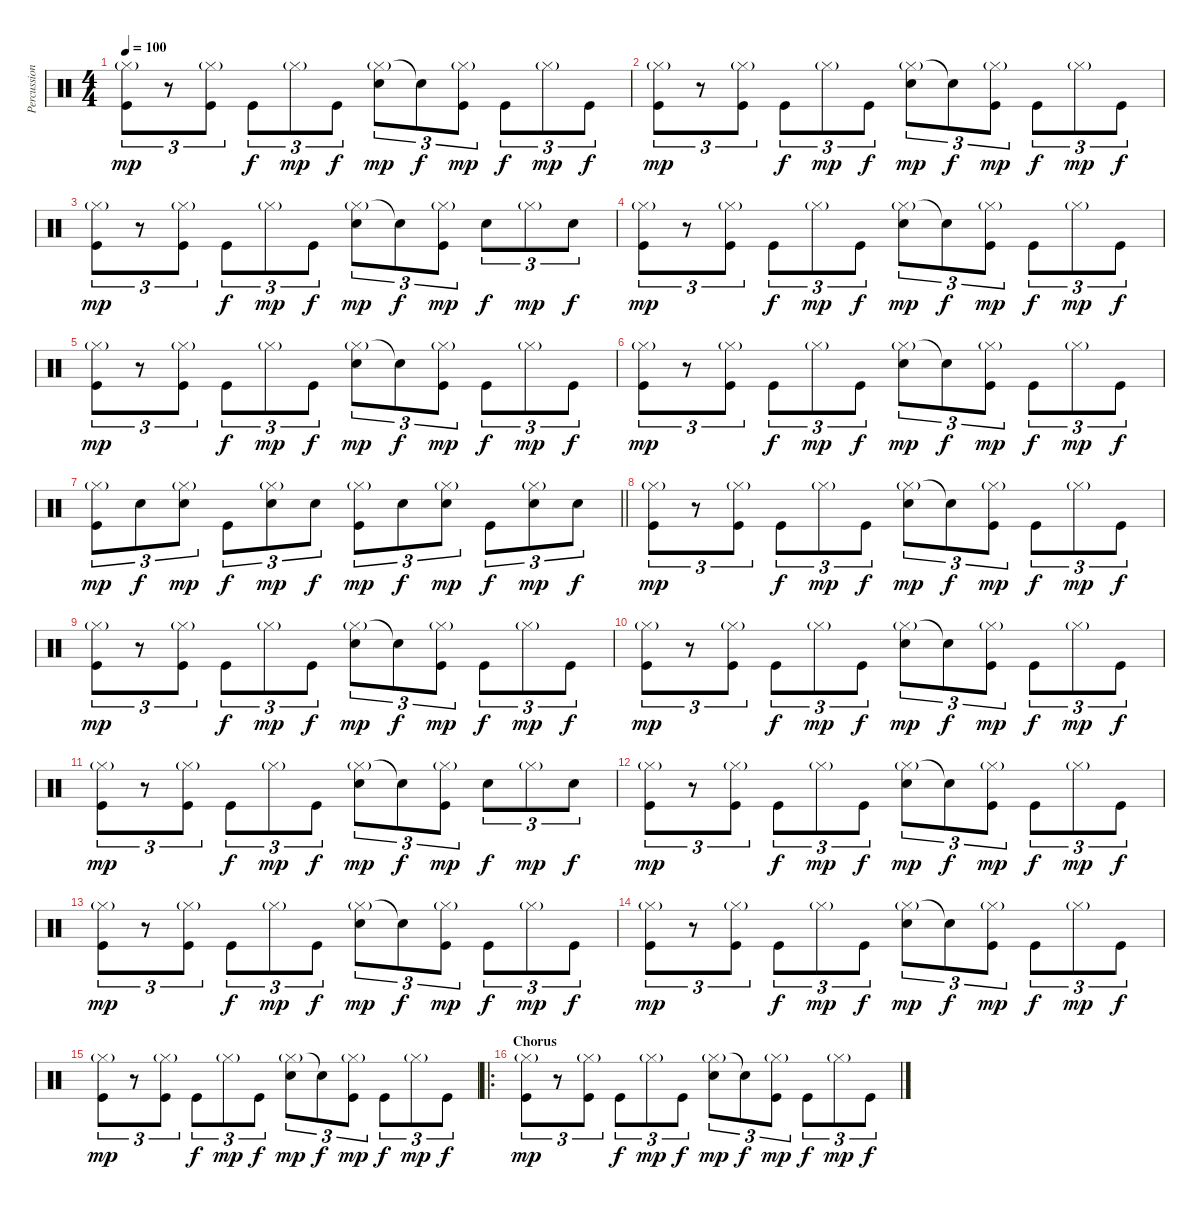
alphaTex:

\track ("Percussions" "Percussion") {instrument percussion}
\staff {score}
\articulation defaults
\ts (4 4)
\tempo 100
\clef neutral
\ks c
("Hi-Hat (closed)"{g} "Kick (hit)").8{tu (3 2) dy mp} r.8{tu (3 2)} ("Hi-Hat (closed)"{g} "Kick (hit)").8{tu (3 2)} "Kick (hit)".8{tu (3 2) dy f} "Hi-Hat (closed)"{g}.8{tu (3 2) dy mp} "Kick (hit)".8{tu (3 2) dy f} ("Hi-Hat (closed)"{g} "Electric Snare (hit)").8{tu (3 2) dy mp} "Snare (hit)"{t}.8{tu (3 2) dy f} ("Hi-Hat (closed)"{g} "Kick (hit)").8{tu (3 2) dy mp} "Kick (hit)".8{tu (3 2) dy f} "Hi-Hat (closed)"{g}.8{tu (3 2) dy mp} "Kick (hit)".8{tu (3 2) dy f} |
("Hi-Hat (closed)"{g} "Kick (hit)").8{tu (3 2) dy mp} r.8{tu (3 2)} ("Hi-Hat (closed)"{g} "Kick (hit)").8{tu (3 2)} "Kick (hit)".8{tu (3 2) dy f} "Hi-Hat (closed)"{g}.8{tu (3 2) dy mp} "Kick (hit)".8{tu (3 2) dy f} ("Hi-Hat (closed)"{g} "Electric Snare (hit)").8{tu (3 2) dy mp} "Snare (hit)"{t}.8{tu (3 2) dy f} ("Hi-Hat (closed)"{g} "Kick (hit)").8{tu (3 2) dy mp} "Kick (hit)".8{tu (3 2) dy f} "Hi-Hat (closed)"{g}.8{tu (3 2) dy mp} "Kick (hit)".8{tu (3 2) dy f} |
("Hi-Hat (closed)"{g} "Kick (hit)").8{tu (3 2) dy mp} r.8{tu (3 2)} ("Hi-Hat (closed)"{g} "Kick (hit)").8{tu (3 2)} "Kick (hit)".8{tu (3 2) dy f} "Hi-Hat (closed)"{g}.8{tu (3 2) dy mp} "Kick (hit)".8{tu (3 2) dy f} ("Hi-Hat (closed)"{g} "Electric Snare (hit)").8{tu (3 2) dy mp} "Snare (hit)"{t}.8{tu (3 2) dy f} ("Hi-Hat (closed)"{g} "Kick (hit)").8{tu (3 2) dy mp} "Electric Snare (hit)".8{tu (3 2) dy f} "Hi-Hat (closed)"{g}.8{tu (3 2) dy mp} "Electric Snare (hit)".8{tu (3 2) dy f} |
("Hi-Hat (closed)"{g} "Kick (hit)").8{tu (3 2) dy mp} r.8{tu (3 2)} ("Hi-Hat (closed)"{g} "Kick (hit)").8{tu (3 2)} "Kick (hit)".8{tu (3 2) dy f} "Hi-Hat (closed)"{g}.8{tu (3 2) dy mp} "Kick (hit)".8{tu (3 2) dy f} ("Hi-Hat (closed)"{g} "Electric Snare (hit)").8{tu (3 2) dy mp} "Snare (hit)"{t}.8{tu (3 2) dy f} ("Hi-Hat (closed)"{g} "Kick (hit)").8{tu (3 2) dy mp} "Kick (hit)".8{tu (3 2) dy f} "Hi-Hat (closed)"{g}.8{tu (3 2) dy mp} "Kick (hit)".8{tu (3 2) dy f} |
("Hi-Hat (closed)"{g} "Kick (hit)").8{tu (3 2) dy mp} r.8{tu (3 2)} ("Hi-Hat (closed)"{g} "Kick (hit)").8{tu (3 2)} "Kick (hit)".8{tu (3 2) dy f} "Hi-Hat (closed)"{g}.8{tu (3 2) dy mp} "Kick (hit)".8{tu (3 2) dy f} ("Hi-Hat (closed)"{g} "Electric Snare (hit)").8{tu (3 2) dy mp} "Snare (hit)"{t}.8{tu (3 2) dy f} ("Hi-Hat (closed)"{g} "Kick (hit)").8{tu (3 2) dy mp} "Kick (hit)".8{tu (3 2) dy f} "Hi-Hat (closed)"{g}.8{tu (3 2) dy mp} "Kick (hit)".8{tu (3 2) dy f} |
("Hi-Hat (closed)"{g} "Kick (hit)").8{tu (3 2) dy mp} r.8{tu (3 2)} ("Hi-Hat (closed)"{g} "Kick (hit)").8{tu (3 2)} "Kick (hit)".8{tu (3 2) dy f} "Hi-Hat (closed)"{g}.8{tu (3 2) dy mp} "Kick (hit)".8{tu (3 2) dy f} ("Hi-Hat (closed)"{g} "Electric Snare (hit)").8{tu (3 2) dy mp} "Snare (hit)"{t}.8{tu (3 2) dy f} ("Hi-Hat (closed)"{g} "Kick (hit)").8{tu (3 2) dy mp} "Kick (hit)".8{tu (3 2) dy f} "Hi-Hat (closed)"{g}.8{tu (3 2) dy mp} "Kick (hit)".8{tu (3 2) dy f} |
\barLineRight lightlight
("Hi-Hat (closed)"{g} "Kick (hit)").8{tu (3 2) dy mp} "Electric Snare (hit)".8{tu (3 2) dy f} ("Hi-Hat (closed)"{g} "Electric Snare (hit)").8{tu (3 2) dy mp} "Kick (hit)".8{tu (3 2) dy f} ("Hi-Hat (closed)"{g} "Electric Snare (hit)").8{tu (3 2) dy mp} "Electric Snare (hit)".8{tu (3 2) dy f} ("Hi-Hat (closed)"{g} "Kick (hit)").8{tu (3 2) dy mp} "Electric Snare (hit)".8{tu (3 2) dy f} ("Hi-Hat (closed)"{g} "Electric Snare (hit)").8{tu (3 2) dy mp} "Kick (hit)".8{tu (3 2) dy f} ("Hi-Hat (closed)"{g} "Electric Snare (hit)").8{tu (3 2) dy mp} "Electric Snare (hit)".8{tu (3 2) dy f} |
("Hi-Hat (closed)"{g} "Kick (hit)").8{tu (3 2) dy mp} r.8{tu (3 2)} ("Hi-Hat (closed)"{g} "Kick (hit)").8{tu (3 2)} "Kick (hit)".8{tu (3 2) dy f} "Hi-Hat (closed)"{g}.8{tu (3 2) dy mp} "Kick (hit)".8{tu (3 2) dy f} ("Hi-Hat (closed)"{g} "Electric Snare (hit)").8{tu (3 2) dy mp} "Snare (hit)"{t}.8{tu (3 2) dy f} ("Hi-Hat (closed)"{g} "Kick (hit)").8{tu (3 2) dy mp} "Kick (hit)".8{tu (3 2) dy f} "Hi-Hat (closed)"{g}.8{tu (3 2) dy mp} "Kick (hit)".8{tu (3 2) dy f} |
("Hi-Hat (closed)"{g} "Kick (hit)").8{tu (3 2) dy mp} r.8{tu (3 2)} ("Hi-Hat (closed)"{g} "Kick (hit)").8{tu (3 2)} "Kick (hit)".8{tu (3 2) dy f} "Hi-Hat (closed)"{g}.8{tu (3 2) dy mp} "Kick (hit)".8{tu (3 2) dy f} ("Hi-Hat (closed)"{g} "Electric Snare (hit)").8{tu (3 2) dy mp} "Snare (hit)"{t}.8{tu (3 2) dy f} ("Hi-Hat (closed)"{g} "Kick (hit)").8{tu (3 2) dy mp} "Kick (hit)".8{tu (3 2) dy f} "Hi-Hat (closed)"{g}.8{tu (3 2) dy mp} "Kick (hit)".8{tu (3 2) dy f} |
("Hi-Hat (closed)"{g} "Kick (hit)").8{tu (3 2) dy mp} r.8{tu (3 2)} ("Hi-Hat (closed)"{g} "Kick (hit)").8{tu (3 2)} "Kick (hit)".8{tu (3 2) dy f} "Hi-Hat (closed)"{g}.8{tu (3 2) dy mp} "Kick (hit)".8{tu (3 2) dy f} ("Hi-Hat (closed)"{g} "Electric Snare (hit)").8{tu (3 2) dy mp} "Snare (hit)"{t}.8{tu (3 2) dy f} ("Hi-Hat (closed)"{g} "Kick (hit)").8{tu (3 2) dy mp} "Kick (hit)".8{tu (3 2) dy f} "Hi-Hat (closed)"{g}.8{tu (3 2) dy mp} "Kick (hit)".8{tu (3 2) dy f} |
("Hi-Hat (closed)"{g} "Kick (hit)").8{tu (3 2) dy mp} r.8{tu (3 2)} ("Hi-Hat (closed)"{g} "Kick (hit)").8{tu (3 2)} "Kick (hit)".8{tu (3 2) dy f} "Hi-Hat (closed)"{g}.8{tu (3 2) dy mp} "Kick (hit)".8{tu (3 2) dy f} ("Hi-Hat (closed)"{g} "Electric Snare (hit)").8{tu (3 2) dy mp} "Snare (hit)"{t}.8{tu (3 2) dy f} ("Hi-Hat (closed)"{g} "Kick (hit)").8{tu (3 2) dy mp} "Electric Snare (hit)".8{tu (3 2) dy f} "Hi-Hat (closed)"{g}.8{tu (3 2) dy mp} "Electric Snare (hit)".8{tu (3 2) dy f} |
("Hi-Hat (closed)"{g} "Kick (hit)").8{tu (3 2) dy mp} r.8{tu (3 2)} ("Hi-Hat (closed)"{g} "Kick (hit)").8{tu (3 2)} "Kick (hit)".8{tu (3 2) dy f} "Hi-Hat (closed)"{g}.8{tu (3 2) dy mp} "Kick (hit)".8{tu (3 2) dy f} ("Hi-Hat (closed)"{g} "Electric Snare (hit)").8{tu (3 2) dy mp} "Snare (hit)"{t}.8{tu (3 2) dy f} ("Hi-Hat (closed)"{g} "Kick (hit)").8{tu (3 2) dy mp} "Kick (hit)".8{tu (3 2) dy f} "Hi-Hat (closed)"{g}.8{tu (3 2) dy mp} "Kick (hit)".8{tu (3 2) dy f} |
("Hi-Hat (closed)"{g} "Kick (hit)").8{tu (3 2) dy mp} r.8{tu (3 2)} ("Hi-Hat (closed)"{g} "Kick (hit)").8{tu (3 2)} "Kick (hit)".8{tu (3 2) dy f} "Hi-Hat (closed)"{g}.8{tu (3 2) dy mp} "Kick (hit)".8{tu (3 2) dy f} ("Hi-Hat (closed)"{g} "Electric Snare (hit)").8{tu (3 2) dy mp} "Snare (hit)"{t}.8{tu (3 2) dy f} ("Hi-Hat (closed)"{g} "Kick (hit)").8{tu (3 2) dy mp} "Kick (hit)".8{tu (3 2) dy f} "Hi-Hat (closed)"{g}.8{tu (3 2) dy mp} "Kick (hit)".8{tu (3 2) dy f} |
("Hi-Hat (closed)"{g} "Kick (hit)").8{tu (3 2) dy mp} r.8{tu (3 2)} ("Hi-Hat (closed)"{g} "Kick (hit)").8{tu (3 2)} "Kick (hit)".8{tu (3 2) dy f} "Hi-Hat (closed)"{g}.8{tu (3 2) dy mp} "Kick (hit)".8{tu (3 2) dy f} ("Hi-Hat (closed)"{g} "Electric Snare (hit)").8{tu (3 2) dy mp} "Snare (hit)"{t}.8{tu (3 2) dy f} ("Hi-Hat (closed)"{g} "Kick (hit)").8{tu (3 2) dy mp} "Kick (hit)".8{tu (3 2) dy f} "Hi-Hat (closed)"{g}.8{tu (3 2) dy mp} "Kick (hit)".8{tu (3 2) dy f} |
("Hi-Hat (closed)"{g} "Kick (hit)").8{tu (3 2) dy mp} r.8{tu (3 2)} ("Hi-Hat (closed)"{g} "Kick (hit)").8{tu (3 2)} "Kick (hit)".8{tu (3 2) dy f} "Hi-Hat (closed)"{g}.8{tu (3 2) dy mp} "Kick (hit)".8{tu (3 2) dy f} ("Hi-Hat (closed)"{g} "Electric Snare (hit)").8{tu (3 2) dy mp} "Snare (hit)"{t}.8{tu (3 2) dy f} ("Hi-Hat (closed)"{g} "Kick (hit)").8{tu (3 2) dy mp} "Kick (hit)".8{tu (3 2) dy f} "Hi-Hat (closed)"{g}.8{tu (3 2) dy mp} "Kick (hit)".8{tu (3 2) dy f} |
\ro
\section ("" "Chorus")
("Hi-Hat (closed)"{g} "Kick (hit)").8{tu (3 2) dy mp} r.8{tu (3 2)} ("Hi-Hat (closed)"{g} "Kick (hit)").8{tu (3 2)} "Kick (hit)".8{tu (3 2) dy f} "Hi-Hat (closed)"{g}.8{tu (3 2) dy mp} "Kick (hit)".8{tu (3 2) dy f} ("Hi-Hat (closed)"{g} "Electric Snare (hit)").8{tu (3 2) dy mp} "Snare (hit)"{t}.8{tu (3 2) dy f} ("Hi-Hat (closed)"{g} "Kick (hit)").8{tu (3 2) dy mp} "Kick (hit)".8{tu (3 2) dy f} "Hi-Hat (closed)"{g}.8{tu (3 2) dy mp} "Kick (hit)".8{tu (3 2) dy f}
